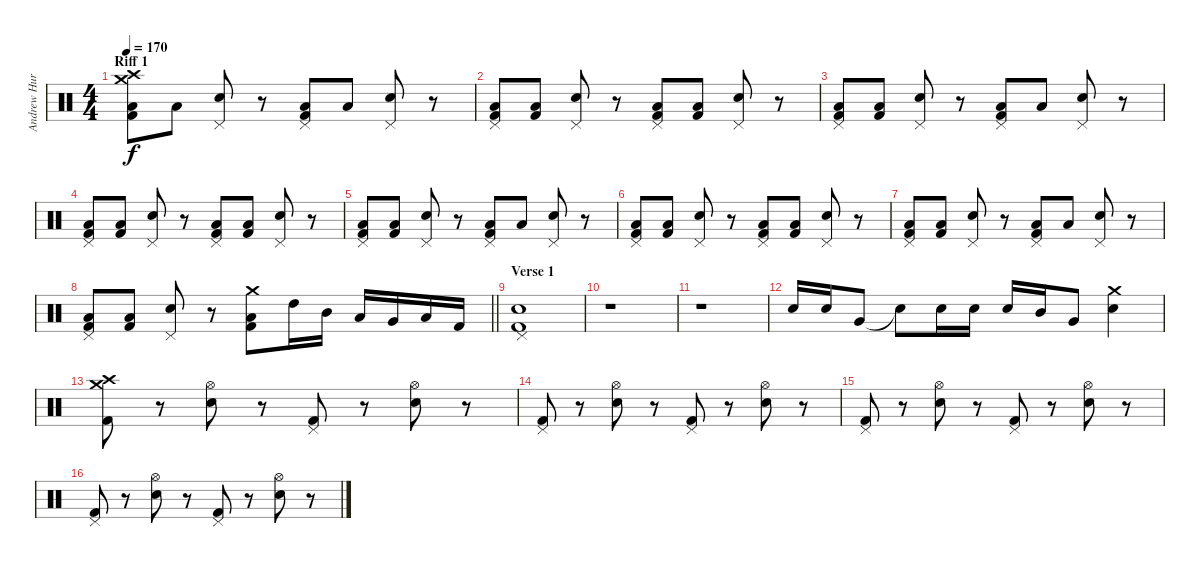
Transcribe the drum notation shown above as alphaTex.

\track ("Andrew Hurley (Drums)" "Andrew Hur") {instrument percussion}
\staff {score}
\articulation defaults
\ts (4 4)
\section ("" "Riff 1")
\tempo 170
\clef neutral
\ks c
("Crash high (hit)" "Crash medium (hit)" "Low Floor Tom (hit)" "Kick (hit) 2").8{dy f} "Low Floor Tom (hit)".8 ("Pedal Hi-Hat (hit)" "Electric Snare (hit)").8 r.8 ("Pedal Hi-Hat (hit)" "Low Floor Tom (hit)" "Kick (hit) 2").8 "Low Floor Tom (hit)".8 ("Pedal Hi-Hat (hit)" "Electric Snare (hit)").8 r.8 |
("Pedal Hi-Hat (hit)" "Low Floor Tom (hit)" "Kick (hit) 2").8 ("Low Floor Tom (hit)" "Kick (hit) 2").8 ("Pedal Hi-Hat (hit)" "Electric Snare (hit)").8 r.8 ("Pedal Hi-Hat (hit)" "Low Floor Tom (hit)" "Kick (hit) 2").8 ("Low Floor Tom (hit)" "Kick (hit) 2").8 ("Pedal Hi-Hat (hit)" "Electric Snare (hit)").8 r.8 |
("Pedal Hi-Hat (hit)" "Low Floor Tom (hit)" "Kick (hit) 2").8 ("Low Floor Tom (hit)" "Kick (hit) 2").8 ("Pedal Hi-Hat (hit)" "Electric Snare (hit)").8 r.8 ("Pedal Hi-Hat (hit)" "Low Floor Tom (hit)" "Kick (hit) 2").8 "Low Floor Tom (hit)".8 ("Pedal Hi-Hat (hit)" "Electric Snare (hit)").8 r.8 |
("Pedal Hi-Hat (hit)" "Low Floor Tom (hit)" "Kick (hit) 2").8 ("Low Floor Tom (hit)" "Kick (hit) 2").8 ("Pedal Hi-Hat (hit)" "Electric Snare (hit)").8 r.8 ("Pedal Hi-Hat (hit)" "Low Floor Tom (hit)" "Kick (hit) 2").8 ("Low Floor Tom (hit)" "Kick (hit) 2").8 ("Pedal Hi-Hat (hit)" "Electric Snare (hit)").8 r.8 |
("Pedal Hi-Hat (hit)" "Low Floor Tom (hit)" "Kick (hit) 2").8 ("Low Floor Tom (hit)" "Kick (hit) 2").8 ("Pedal Hi-Hat (hit)" "Electric Snare (hit)").8 r.8 ("Pedal Hi-Hat (hit)" "Low Floor Tom (hit)" "Kick (hit) 2").8 "Low Floor Tom (hit)".8 ("Pedal Hi-Hat (hit)" "Electric Snare (hit)").8 r.8 |
("Pedal Hi-Hat (hit)" "Low Floor Tom (hit)" "Kick (hit) 2").8 ("Low Floor Tom (hit)" "Kick (hit) 2").8 ("Pedal Hi-Hat (hit)" "Electric Snare (hit)").8 r.8 ("Pedal Hi-Hat (hit)" "Low Floor Tom (hit)" "Kick (hit) 2").8 ("Low Floor Tom (hit)" "Kick (hit) 2").8 ("Pedal Hi-Hat (hit)" "Electric Snare (hit)").8 r.8 |
("Pedal Hi-Hat (hit)" "Low Floor Tom (hit)" "Kick (hit) 2").8 ("Low Floor Tom (hit)" "Kick (hit) 2").8 ("Pedal Hi-Hat (hit)" "Electric Snare (hit)").8 r.8 ("Pedal Hi-Hat (hit)" "Low Floor Tom (hit)" "Kick (hit) 2").8 "Low Floor Tom (hit)".8 ("Pedal Hi-Hat (hit)" "Electric Snare (hit)").8 r.8 |
\barLineRight lightlight
("Pedal Hi-Hat (hit)" "Low Floor Tom (hit)" "Kick (hit) 2").8 ("Low Floor Tom (hit)" "Kick (hit) 2").8 ("Pedal Hi-Hat (hit)" "Electric Snare (hit)").8 r.8 ("Crash medium (hit)" "Low Floor Tom (hit)" "Kick (hit) 2").8 "High Tom (hit)".16 "Mid Tom (hit)".16 "Low Tom (hit)".16 "Very Low Tom (hit)".16 "Low Floor Tom (hit)".16 "Kick (hit) 2".16 |
\section ("" "Verse 1")
("Pedal Hi-Hat (hit)" "Electric Snare (hit)" "Kick (hit) 2").1 |
r.1 |
r.1 |
"Electric Snare (hit)".16 "Electric Snare (hit)".16 "Very Low Tom (hit)".8 "Snare (hit)"{t}.8 "Electric Snare (hit)".16 "Electric Snare (hit)".16 "Electric Snare (hit)".16 "Mid Tom (hit)".16 "Very Low Tom (hit)".8 ("Crash medium (hit)" "Electric Snare (hit)").4 |
("Crash high (hit)" "Crash medium (hit)" "Kick (hit) 2").8 r.8 ("Hi-Hat (open)" "Electric Snare (hit)").8 r.8 ("Pedal Hi-Hat (hit)" "Kick (hit) 2").8 r.8 ("Hi-Hat (open)" "Electric Snare (hit)").8 r.8 |
("Pedal Hi-Hat (hit)" "Kick (hit) 2").8 r.8 ("Hi-Hat (open)" "Electric Snare (hit)").8 r.8 ("Pedal Hi-Hat (hit)" "Kick (hit) 2").8 r.8 ("Hi-Hat (open)" "Electric Snare (hit)").8 r.8 |
("Pedal Hi-Hat (hit)" "Kick (hit) 2").8 r.8 ("Hi-Hat (open)" "Electric Snare (hit)").8 r.8 ("Pedal Hi-Hat (hit)" "Kick (hit) 2").8 r.8 ("Hi-Hat (open)" "Electric Snare (hit)").8 r.8 |
("Pedal Hi-Hat (hit)" "Kick (hit) 2").8 r.8 ("Hi-Hat (open)" "Electric Snare (hit)").8 r.8 ("Pedal Hi-Hat (hit)" "Kick (hit) 2").8 r.8 ("Hi-Hat (open)" "Electric Snare (hit)").8 r.8
